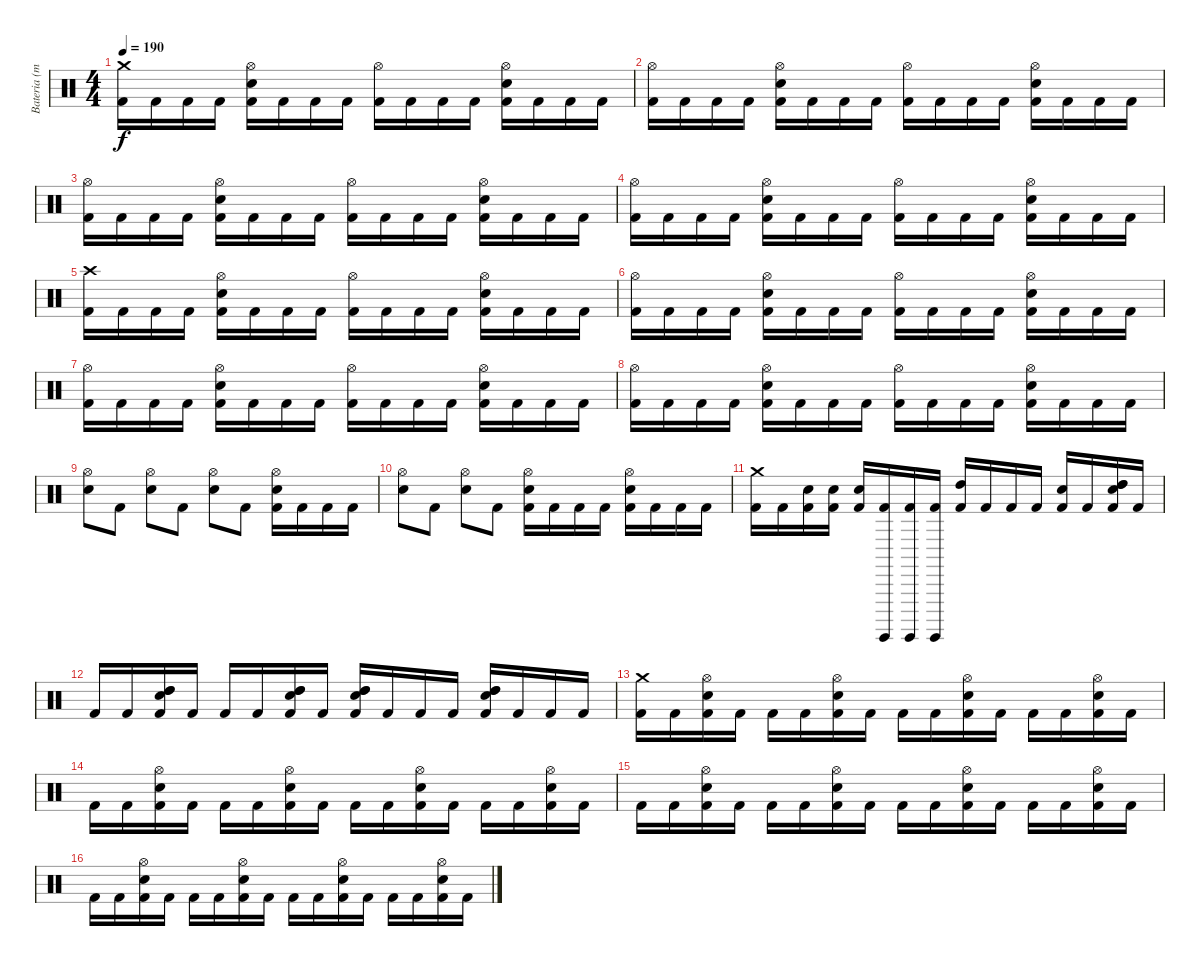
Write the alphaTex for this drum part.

\track ("Bateria (mestre Aquiles Priester)" "Bateria (m") {instrument percussion}
\staff {score}
\articulation defaults
\ts (4 4)
\tempo 190
\clef neutral
\ks c
("Kick (hit) 2" "Crash medium (hit)").16{dy f} "Kick (hit) 2".16 "Kick (hit) 2".16 "Kick (hit) 2".16 ("Kick (hit) 2" "Electric Snare (hit)" "Hi-Hat (open)").16 "Kick (hit) 2".16 "Kick (hit) 2".16 "Kick (hit) 2".16 ("Kick (hit) 2" "Hi-Hat (open)").16 "Kick (hit) 2".16 "Kick (hit) 2".16 "Kick (hit) 2".16 ("Kick (hit) 2" "Electric Snare (hit)" "Hi-Hat (open)").16 "Kick (hit) 2".16 "Kick (hit) 2".16 "Kick (hit) 2".16 |
("Kick (hit) 2" "Hi-Hat (open)").16 "Kick (hit) 2".16 "Kick (hit) 2".16 "Kick (hit) 2".16 ("Kick (hit) 2" "Electric Snare (hit)" "Hi-Hat (open)").16 "Kick (hit) 2".16 "Kick (hit) 2".16 "Kick (hit) 2".16 ("Kick (hit) 2" "Hi-Hat (open)").16 "Kick (hit) 2".16 "Kick (hit) 2".16 "Kick (hit) 2".16 ("Kick (hit) 2" "Electric Snare (hit)" "Hi-Hat (open)").16 "Kick (hit) 2".16 "Kick (hit) 2".16 "Kick (hit) 2".16 |
("Kick (hit) 2" "Hi-Hat (open)").16 "Kick (hit) 2".16 "Kick (hit) 2".16 "Kick (hit) 2".16 ("Kick (hit) 2" "Electric Snare (hit)" "Hi-Hat (open)").16 "Kick (hit) 2".16 "Kick (hit) 2".16 "Kick (hit) 2".16 ("Kick (hit) 2" "Hi-Hat (open)").16 "Kick (hit) 2".16 "Kick (hit) 2".16 "Kick (hit) 2".16 ("Kick (hit) 2" "Electric Snare (hit)" "Hi-Hat (open)").16 "Kick (hit) 2".16 "Kick (hit) 2".16 "Kick (hit) 2".16 |
("Kick (hit) 2" "Hi-Hat (open)").16 "Kick (hit) 2".16 "Kick (hit) 2".16 "Kick (hit) 2".16 ("Kick (hit) 2" "Electric Snare (hit)" "Hi-Hat (open)").16 "Kick (hit) 2".16 "Kick (hit) 2".16 "Kick (hit) 2".16 ("Kick (hit) 2" "Hi-Hat (open)").16 "Kick (hit) 2".16 "Kick (hit) 2".16 "Kick (hit) 2".16 ("Kick (hit) 2" "Electric Snare (hit)" "Hi-Hat (open)").16 "Kick (hit) 2".16 "Kick (hit) 2".16 "Kick (hit) 2".16 |
("Kick (hit) 2" "Crash high (hit)").16 "Kick (hit) 2".16 "Kick (hit) 2".16 "Kick (hit) 2".16 ("Kick (hit) 2" "Electric Snare (hit)" "Hi-Hat (open)").16 "Kick (hit) 2".16 "Kick (hit) 2".16 "Kick (hit) 2".16 ("Kick (hit) 2" "Hi-Hat (open)").16 "Kick (hit) 2".16 "Kick (hit) 2".16 "Kick (hit) 2".16 ("Kick (hit) 2" "Electric Snare (hit)" "Hi-Hat (open)").16 "Kick (hit) 2".16 "Kick (hit) 2".16 "Kick (hit) 2".16 |
("Kick (hit) 2" "Hi-Hat (open)").16 "Kick (hit) 2".16 "Kick (hit) 2".16 "Kick (hit) 2".16 ("Kick (hit) 2" "Electric Snare (hit)" "Hi-Hat (open)").16 "Kick (hit) 2".16 "Kick (hit) 2".16 "Kick (hit) 2".16 ("Kick (hit) 2" "Hi-Hat (open)").16 "Kick (hit) 2".16 "Kick (hit) 2".16 "Kick (hit) 2".16 ("Kick (hit) 2" "Electric Snare (hit)" "Hi-Hat (open)").16 "Kick (hit) 2".16 "Kick (hit) 2".16 "Kick (hit) 2".16 |
("Kick (hit) 2" "Hi-Hat (open)").16 "Kick (hit) 2".16 "Kick (hit) 2".16 "Kick (hit) 2".16 ("Kick (hit) 2" "Electric Snare (hit)" "Hi-Hat (open)").16 "Kick (hit) 2".16 "Kick (hit) 2".16 "Kick (hit) 2".16 ("Kick (hit) 2" "Hi-Hat (open)").16 "Kick (hit) 2".16 "Kick (hit) 2".16 "Kick (hit) 2".16 ("Kick (hit) 2" "Electric Snare (hit)" "Hi-Hat (open)").16 "Kick (hit) 2".16 "Kick (hit) 2".16 "Kick (hit) 2".16 |
("Kick (hit) 2" "Hi-Hat (open)").16 "Kick (hit) 2".16 "Kick (hit) 2".16 "Kick (hit) 2".16 ("Kick (hit) 2" "Electric Snare (hit)" "Hi-Hat (open)").16 "Kick (hit) 2".16 "Kick (hit) 2".16 "Kick (hit) 2".16 ("Kick (hit) 2" "Hi-Hat (open)").16 "Kick (hit) 2".16 "Kick (hit) 2".16 "Kick (hit) 2".16 ("Kick (hit) 2" "Electric Snare (hit)" "Hi-Hat (open)").16 "Kick (hit) 2".16 "Kick (hit) 2".16 "Kick (hit) 2".16 |
("Electric Snare (hit)" "Hi-Hat (open)").8 "Kick (hit) 2".8 ("Electric Snare (hit)" "Hi-Hat (open)").8 "Kick (hit) 2".8 ("Electric Snare (hit)" "Hi-Hat (open)").8 "Kick (hit) 2".8 ("Kick (hit) 2" "Electric Snare (hit)" "Hi-Hat (open)").16 "Kick (hit) 2".16 "Kick (hit) 2".16 "Kick (hit) 2".16 |
("Electric Snare (hit)" "Hi-Hat (open)").8 "Kick (hit) 2".8 ("Electric Snare (hit)" "Hi-Hat (open)").8 "Kick (hit) 2".8 ("Kick (hit) 2" "Electric Snare (hit)" "Hi-Hat (open)").16 "Kick (hit) 2".16 "Kick (hit) 2".16 "Kick (hit) 2".16 ("Kick (hit) 2" "Electric Snare (hit)" "Hi-Hat (open)").16 "Kick (hit) 2".16 "Kick (hit) 2".16 "Kick (hit) 2".16 |
("Kick (hit) 2" "Crash medium (hit)").16 "Kick (hit) 2".16 ("Kick (hit) 2" "Electric Snare (hit)").16 ("Kick (hit) 2" "Electric Snare (hit)").16 ("Kick (hit) 2" "Electric Snare (hit)").16 ("Kick (hit) 2" "Surdo (hit)").16 ("Kick (hit) 2" "Surdo (hit)").16 ("Kick (hit) 2" "Surdo (hit)").16 ("Kick (hit) 2" "High Tom (hit)").16 "Kick (hit) 2".16 "Kick (hit) 2".16 "Kick (hit) 2".16 ("Kick (hit) 2" "Electric Snare (hit)").16 "Kick (hit) 2".16 ("Kick (hit) 2" "Electric Snare (hit)" "High Tom (hit)" "High Tom (hit)").16 "Kick (hit) 2".16 |
"Kick (hit) 2".16 "Kick (hit) 2".16 ("Kick (hit) 2" "Electric Snare (hit)" "High Tom (hit)" "High Tom (hit)").16 "Kick (hit) 2".16 "Kick (hit) 2".16 "Kick (hit) 2".16 ("Kick (hit) 2" "Electric Snare (hit)" "High Tom (hit)" "High Tom (hit)").16 "Kick (hit) 2".16 ("Kick (hit) 2" "Electric Snare (hit)" "High Tom (hit)" "High Tom (hit)").16 "Kick (hit) 2".16 "Kick (hit) 2".16 "Kick (hit) 2".16 ("Kick (hit) 2" "Electric Snare (hit)" "High Tom (hit)" "High Tom (hit)").16 "Kick (hit) 2".16 "Kick (hit) 2".16 "Kick (hit) 2".16 |
("Kick (hit) 2" "Crash medium (hit)").16 "Kick (hit) 2".16 ("Kick (hit) 2" "Electric Snare (hit)" "Hi-Hat (open)").16 "Kick (hit) 2".16 "Kick (hit) 2".16 "Kick (hit) 2".16 ("Kick (hit) 2" "Electric Snare (hit)" "Hi-Hat (open)").16 "Kick (hit) 2".16 "Kick (hit) 2".16 "Kick (hit) 2".16 ("Kick (hit) 2" "Electric Snare (hit)" "Hi-Hat (open)").16 "Kick (hit) 2".16 "Kick (hit) 2".16 "Kick (hit) 2".16 ("Kick (hit) 2" "Electric Snare (hit)" "Hi-Hat (open)").16 "Kick (hit) 2".16 |
"Kick (hit) 2".16 "Kick (hit) 2".16 ("Kick (hit) 2" "Electric Snare (hit)" "Hi-Hat (open)").16 "Kick (hit) 2".16 "Kick (hit) 2".16 "Kick (hit) 2".16 ("Kick (hit) 2" "Electric Snare (hit)" "Hi-Hat (open)").16 "Kick (hit) 2".16 "Kick (hit) 2".16 "Kick (hit) 2".16 ("Kick (hit) 2" "Electric Snare (hit)" "Hi-Hat (open)").16 "Kick (hit) 2".16 "Kick (hit) 2".16 "Kick (hit) 2".16 ("Kick (hit) 2" "Electric Snare (hit)" "Hi-Hat (open)").16 "Kick (hit) 2".16 |
"Kick (hit) 2".16 "Kick (hit) 2".16 ("Kick (hit) 2" "Electric Snare (hit)" "Hi-Hat (open)").16 "Kick (hit) 2".16 "Kick (hit) 2".16 "Kick (hit) 2".16 ("Kick (hit) 2" "Electric Snare (hit)" "Hi-Hat (open)").16 "Kick (hit) 2".16 "Kick (hit) 2".16 "Kick (hit) 2".16 ("Kick (hit) 2" "Electric Snare (hit)" "Hi-Hat (open)").16 "Kick (hit) 2".16 "Kick (hit) 2".16 "Kick (hit) 2".16 ("Kick (hit) 2" "Electric Snare (hit)" "Hi-Hat (open)").16 "Kick (hit) 2".16 |
"Kick (hit) 2".16 "Kick (hit) 2".16 ("Kick (hit) 2" "Electric Snare (hit)" "Hi-Hat (open)").16 "Kick (hit) 2".16 "Kick (hit) 2".16 "Kick (hit) 2".16 ("Kick (hit) 2" "Electric Snare (hit)" "Hi-Hat (open)").16 "Kick (hit) 2".16 "Kick (hit) 2".16 "Kick (hit) 2".16 ("Kick (hit) 2" "Electric Snare (hit)" "Hi-Hat (open)").16 "Kick (hit) 2".16 "Kick (hit) 2".16 "Kick (hit) 2".16 ("Kick (hit) 2" "Electric Snare (hit)" "Hi-Hat (open)").16 "Kick (hit) 2".16
